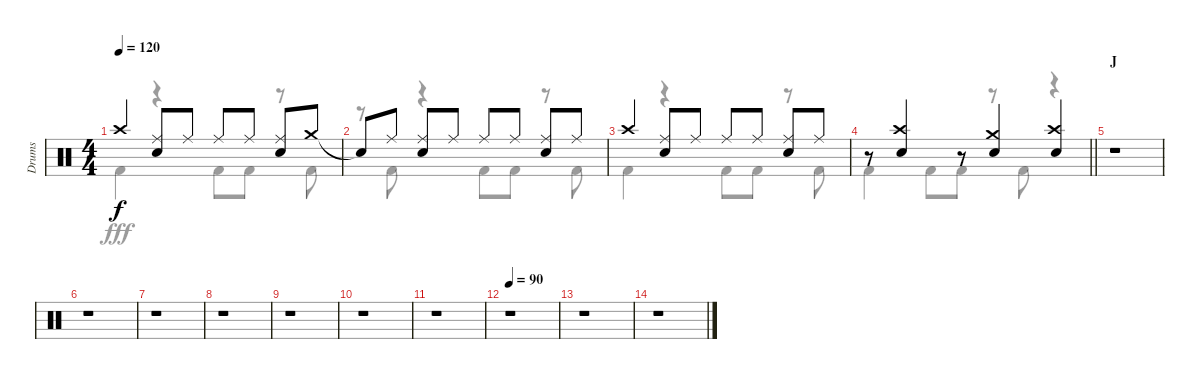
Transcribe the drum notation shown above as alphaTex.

\track ("Drums" "Drums") {instrument percussion}
\staff {score}
\articulation defaults
\voice
\ts (4 4)
\tempo 120
\clef neutral
\ks c "Crash high (hit)".4{dy f}
("Ride (middle)" "Snare (hit) 2").8 "Ride (middle)".8 "Ride (middle)".8 "Ride (middle)".8 ("Ride (middle)" "Snare (hit) 2").8 "Crash medium (hit)".8 |
"Snare (hit)"{t}.8 "Ride (middle)".8 ("Ride (middle)" "Snare (hit) 2").8 "Ride (middle)".8 "Ride (middle)".8 "Ride (middle)".8 ("Ride (middle)" "Snare (hit) 2").8 "Ride (middle)".8 |
"Crash high (hit)".4 ("Ride (middle)" "Snare (hit) 2").8 "Ride (middle)".8 "Ride (middle)".8 "Ride (middle)".8 ("Ride (middle)" "Snare (hit) 2").8 "Ride (middle)".8 |
\barLineRight lightlight
r.8 ("Crash high (hit)" "Snare (hit) 2").4 r.8 ("Crash medium (hit)" "Snare (hit) 2").4 ("Crash high (hit)" "Snare (hit) 2").4 |
\section ("" "J")
r.1 |
r.1 |
r.1 |
r.1 |
r.1 |
r.1 |
r.1 |
\tempo 90
r.1 |
r.1 |
r.1
\voice
\clef neutral
\ottava regular
\simile none
\ks c "Kick (hit) 2".4{dy fff}
r.4 "Kick (hit) 2".8 "Kick (hit) 2".8 r.8 "Kick (hit) 2".8 |
r.8 "Kick (hit) 2".8 r.4 "Kick (hit) 2".8 "Kick (hit) 2".8 r.8 "Kick (hit) 2".8 |
"Kick (hit) 2".4 r.4 "Kick (hit) 2".8 "Kick (hit) 2".8 r.8 "Kick (hit) 2".8 |
\barLineRight lightlight "Kick (hit) 2".4 "Kick (hit) 2".8 "Kick (hit) 2".8
r.8 "Kick (hit) 2".8 r.4 |
r.1 |
r.1 |
r.1 |
r.1 |
r.1 |
r.1 |
r.1 |
r.1 |
r.1 |
r.1
